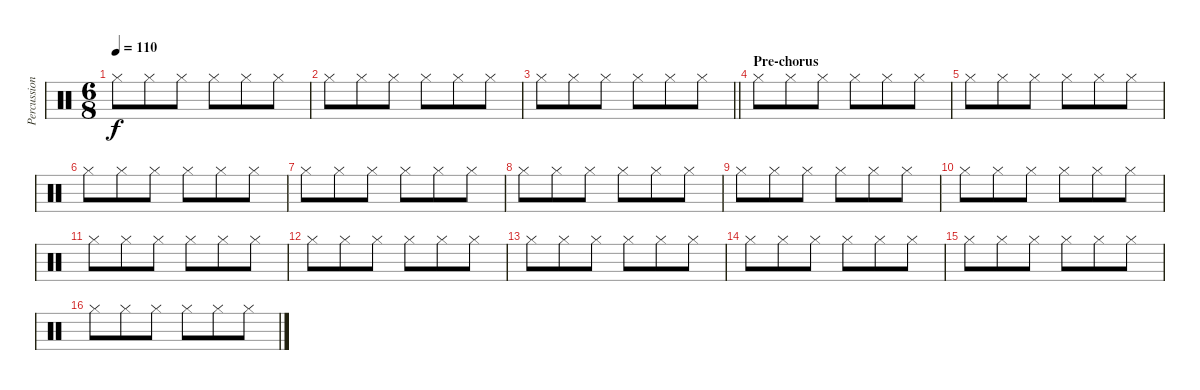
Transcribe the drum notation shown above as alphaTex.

\track ("Percussion" "Percussion") {instrument percussion}
\staff {score}
\articulation defaults
\ts (6 8)
\tempo 110
\clef neutral
\ks c "Hi-Hat (closed)".8{dy f} "Hi-Hat (closed)".8 "Hi-Hat (closed)".8 "Hi-Hat (closed)".8 "Hi-Hat (closed)".8 "Hi-Hat (closed)".8
|
"Hi-Hat (closed)".8 "Hi-Hat (closed)".8 "Hi-Hat (closed)".8 "Hi-Hat (closed)".8 "Hi-Hat (closed)".8 "Hi-Hat (closed)".8 |
\barLineRight lightlight "Hi-Hat (closed)".8 "Hi-Hat (closed)".8 "Hi-Hat (closed)".8 "Hi-Hat (closed)".8 "Hi-Hat (closed)".8 "Hi-Hat (closed)".8
|
\section ("" "Pre-chorus")
"Hi-Hat (closed)".8 "Hi-Hat (closed)".8 "Hi-Hat (closed)".8 "Hi-Hat (closed)".8 "Hi-Hat (closed)".8 "Hi-Hat (closed)".8 |
"Hi-Hat (closed)".8 "Hi-Hat (closed)".8 "Hi-Hat (closed)".8 "Hi-Hat (closed)".8 "Hi-Hat (closed)".8 "Hi-Hat (closed)".8 |
"Hi-Hat (closed)".8 "Hi-Hat (closed)".8 "Hi-Hat (closed)".8 "Hi-Hat (closed)".8 "Hi-Hat (closed)".8 "Hi-Hat (closed)".8 |
"Hi-Hat (closed)".8 "Hi-Hat (closed)".8 "Hi-Hat (closed)".8 "Hi-Hat (closed)".8 "Hi-Hat (closed)".8 "Hi-Hat (closed)".8 |
"Hi-Hat (closed)".8 "Hi-Hat (closed)".8 "Hi-Hat (closed)".8 "Hi-Hat (closed)".8 "Hi-Hat (closed)".8 "Hi-Hat (closed)".8 |
"Hi-Hat (closed)".8 "Hi-Hat (closed)".8 "Hi-Hat (closed)".8 "Hi-Hat (closed)".8 "Hi-Hat (closed)".8 "Hi-Hat (closed)".8 |
"Hi-Hat (closed)".8 "Hi-Hat (closed)".8 "Hi-Hat (closed)".8 "Hi-Hat (closed)".8 "Hi-Hat (closed)".8 "Hi-Hat (closed)".8 |
"Hi-Hat (closed)".8 "Hi-Hat (closed)".8 "Hi-Hat (closed)".8 "Hi-Hat (closed)".8 "Hi-Hat (closed)".8 "Hi-Hat (closed)".8 |
"Hi-Hat (closed)".8 "Hi-Hat (closed)".8 "Hi-Hat (closed)".8 "Hi-Hat (closed)".8 "Hi-Hat (closed)".8 "Hi-Hat (closed)".8 |
"Hi-Hat (closed)".8 "Hi-Hat (closed)".8 "Hi-Hat (closed)".8 "Hi-Hat (closed)".8 "Hi-Hat (closed)".8 "Hi-Hat (closed)".8 |
"Hi-Hat (closed)".8 "Hi-Hat (closed)".8 "Hi-Hat (closed)".8 "Hi-Hat (closed)".8 "Hi-Hat (closed)".8 "Hi-Hat (closed)".8 |
"Hi-Hat (closed)".8 "Hi-Hat (closed)".8 "Hi-Hat (closed)".8 "Hi-Hat (closed)".8 "Hi-Hat (closed)".8 "Hi-Hat (closed)".8 |
"Hi-Hat (closed)".8 "Hi-Hat (closed)".8 "Hi-Hat (closed)".8 "Hi-Hat (closed)".8 "Hi-Hat (closed)".8 "Hi-Hat (closed)".8
